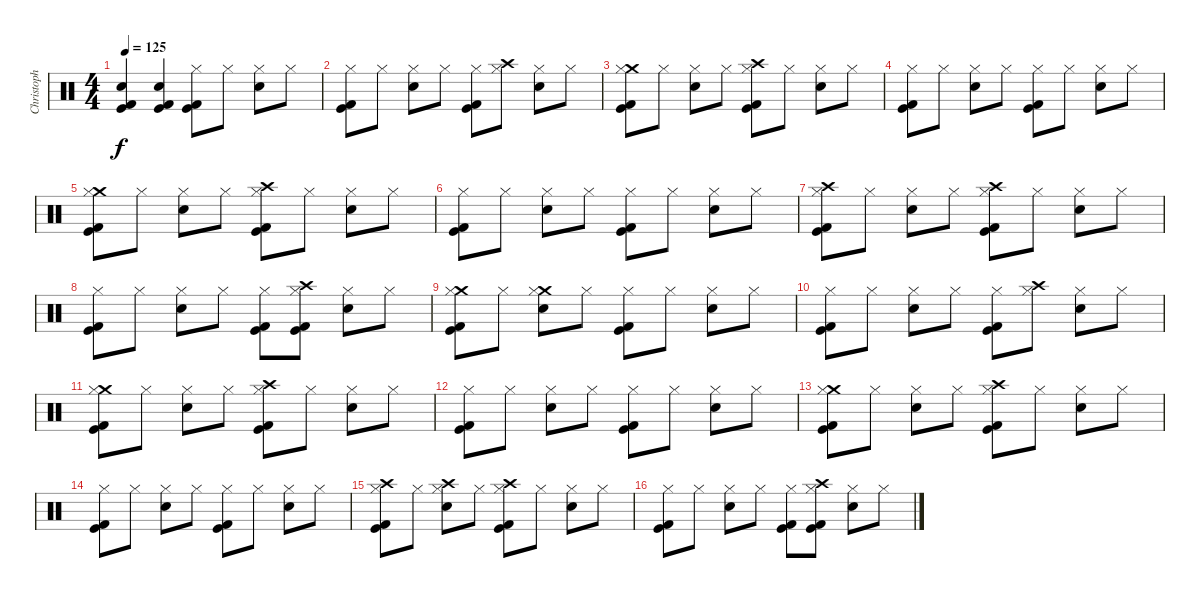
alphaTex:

\track ("Christoph (Drums)" "Christoph ") {instrument percussion}
\staff {score}
\articulation defaults
\ts (4 4)
\tempo 125
\clef neutral
\ks c
("Snare (hit) 2" "Kick (hit) 2" "Kick (hit)").4{dy f} ("Snare (hit) 2" "Kick (hit) 2" "Kick (hit)").4 ("Hi-Hat (closed)" "Kick (hit) 2" "Kick (hit)").8 "Hi-Hat (closed)".8 ("Hi-Hat (closed)" "Snare (hit) 2").8 "Hi-Hat (closed)".8 |
("Hi-Hat (closed)" "Kick (hit) 2" "Kick (hit)").8 "Hi-Hat (closed)".8 ("Hi-Hat (closed)" "Snare (hit) 2").8 "Hi-Hat (closed)".8 ("Hi-Hat (closed)" "Kick (hit) 2" "Kick (hit)").8 ("Crash high (hit)" "Hi-Hat (closed)").8 ("Hi-Hat (closed)" "Snare (hit) 2").8 "Hi-Hat (closed)".8 |
("Crash medium (hit)" "Hi-Hat (closed)" "Kick (hit) 2" "Kick (hit)").8 "Hi-Hat (closed)".8 ("Hi-Hat (closed)" "Snare (hit) 2").8 "Hi-Hat (closed)".8 ("Crash high (hit)" "Hi-Hat (closed)" "Kick (hit) 2" "Kick (hit)").8 "Hi-Hat (closed)".8 ("Hi-Hat (closed)" "Snare (hit) 2").8 "Hi-Hat (closed)".8 |
("Hi-Hat (closed)" "Kick (hit) 2" "Kick (hit)").8 "Hi-Hat (closed)".8 ("Hi-Hat (closed)" "Snare (hit) 2").8 "Hi-Hat (closed)".8 ("Hi-Hat (closed)" "Kick (hit) 2" "Kick (hit)").8 "Hi-Hat (closed)".8 ("Hi-Hat (closed)" "Snare (hit) 2").8 "Hi-Hat (closed)".8 |
("Crash medium (hit)" "Hi-Hat (closed)" "Kick (hit) 2" "Kick (hit)").8 "Hi-Hat (closed)".8 ("Hi-Hat (closed)" "Snare (hit) 2").8 "Hi-Hat (closed)".8 ("Crash high (hit)" "Hi-Hat (closed)" "Kick (hit) 2" "Kick (hit)").8 "Hi-Hat (closed)".8 ("Hi-Hat (closed)" "Snare (hit) 2").8 "Hi-Hat (closed)".8 |
("Hi-Hat (closed)" "Kick (hit) 2" "Kick (hit)").8 "Hi-Hat (closed)".8 ("Hi-Hat (closed)" "Snare (hit) 2").8 "Hi-Hat (closed)".8 ("Hi-Hat (closed)" "Kick (hit) 2" "Kick (hit)").8 "Hi-Hat (closed)".8 ("Hi-Hat (closed)" "Snare (hit) 2").8 "Hi-Hat (closed)".8 |
("Crash high (hit)" "Hi-Hat (closed)" "Kick (hit) 2" "Kick (hit)").8 "Hi-Hat (closed)".8 ("Hi-Hat (closed)" "Snare (hit) 2").8 "Hi-Hat (closed)".8 ("Crash high (hit)" "Hi-Hat (closed)" "Kick (hit) 2" "Kick (hit)").8 "Hi-Hat (closed)".8 ("Hi-Hat (closed)" "Snare (hit) 2").8 "Hi-Hat (closed)".8 |
("Hi-Hat (closed)" "Kick (hit) 2" "Kick (hit)").8 "Hi-Hat (closed)".8 ("Hi-Hat (closed)" "Snare (hit) 2").8 "Hi-Hat (closed)".8 ("Hi-Hat (closed)" "Kick (hit) 2" "Kick (hit)").8 ("Crash high (hit)" "Hi-Hat (closed)" "Kick (hit) 2" "Kick (hit)").8 ("Hi-Hat (closed)" "Snare (hit) 2").8 "Hi-Hat (closed)".8 |
("Crash medium (hit)" "Hi-Hat (closed)" "Kick (hit) 2" "Kick (hit)").8 "Hi-Hat (closed)".8 ("Crash medium (hit)" "Hi-Hat (closed)" "Snare (hit) 2").8 "Hi-Hat (closed)".8 ("Hi-Hat (closed)" "Kick (hit) 2" "Kick (hit)").8 "Hi-Hat (closed)".8 ("Hi-Hat (closed)" "Snare (hit) 2").8 "Hi-Hat (closed)".8 |
("Hi-Hat (closed)" "Kick (hit) 2" "Kick (hit)").8 "Hi-Hat (closed)".8 ("Hi-Hat (closed)" "Snare (hit) 2").8 "Hi-Hat (closed)".8 ("Hi-Hat (closed)" "Kick (hit) 2" "Kick (hit)").8 ("Crash high (hit)" "Hi-Hat (closed)").8 ("Hi-Hat (closed)" "Snare (hit) 2").8 "Hi-Hat (closed)".8 |
("Crash medium (hit)" "Hi-Hat (closed)" "Kick (hit) 2" "Kick (hit)").8 "Hi-Hat (closed)".8 ("Hi-Hat (closed)" "Snare (hit) 2").8 "Hi-Hat (closed)".8 ("Crash high (hit)" "Hi-Hat (closed)" "Kick (hit) 2" "Kick (hit)").8 "Hi-Hat (closed)".8 ("Hi-Hat (closed)" "Snare (hit) 2").8 "Hi-Hat (closed)".8 |
("Hi-Hat (closed)" "Kick (hit) 2" "Kick (hit)").8 "Hi-Hat (closed)".8 ("Hi-Hat (closed)" "Snare (hit) 2").8 "Hi-Hat (closed)".8 ("Hi-Hat (closed)" "Kick (hit) 2" "Kick (hit)").8 "Hi-Hat (closed)".8 ("Hi-Hat (closed)" "Snare (hit) 2").8 "Hi-Hat (closed)".8 |
("Crash medium (hit)" "Hi-Hat (closed)" "Kick (hit) 2" "Kick (hit)").8 "Hi-Hat (closed)".8 ("Hi-Hat (closed)" "Snare (hit) 2").8 "Hi-Hat (closed)".8 ("Crash high (hit)" "Hi-Hat (closed)" "Kick (hit) 2" "Kick (hit)").8 "Hi-Hat (closed)".8 ("Hi-Hat (closed)" "Snare (hit) 2").8 "Hi-Hat (closed)".8 |
("Hi-Hat (closed)" "Kick (hit) 2" "Kick (hit)").8 "Hi-Hat (closed)".8 ("Hi-Hat (closed)" "Snare (hit) 2").8 "Hi-Hat (closed)".8 ("Hi-Hat (closed)" "Kick (hit) 2" "Kick (hit)").8 "Hi-Hat (closed)".8 ("Hi-Hat (closed)" "Snare (hit) 2").8 "Hi-Hat (closed)".8 |
("Crash high (hit)" "Hi-Hat (closed)" "Kick (hit) 2" "Kick (hit)").8 "Hi-Hat (closed)".8 ("Crash high (hit)" "Hi-Hat (closed)" "Snare (hit) 2").8 "Hi-Hat (closed)".8 ("Crash high (hit)" "Hi-Hat (closed)" "Kick (hit) 2" "Kick (hit)").8 "Hi-Hat (closed)".8 ("Hi-Hat (closed)" "Snare (hit) 2").8 "Hi-Hat (closed)".8 |
("Hi-Hat (closed)" "Kick (hit) 2" "Kick (hit)").8 "Hi-Hat (closed)".8 ("Hi-Hat (closed)" "Snare (hit) 2").8 "Hi-Hat (closed)".8 ("Hi-Hat (closed)" "Kick (hit) 2" "Kick (hit)").8 ("Crash high (hit)" "Hi-Hat (closed)" "Kick (hit) 2" "Kick (hit)").8 ("Hi-Hat (closed)" "Snare (hit) 2").8 "Hi-Hat (closed)".8
